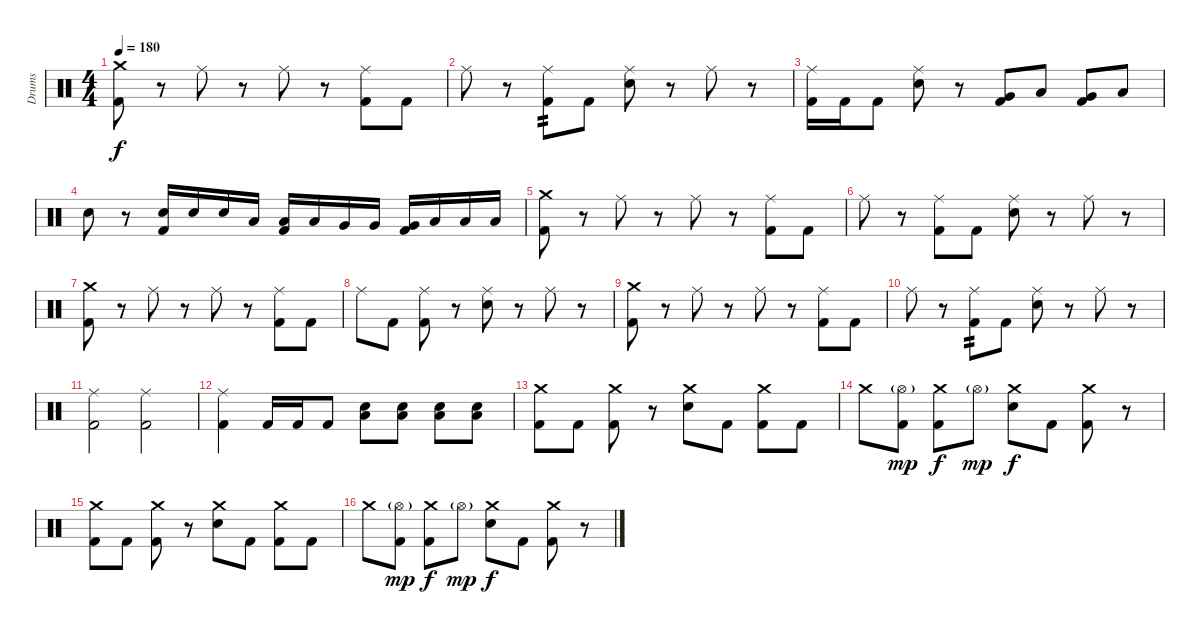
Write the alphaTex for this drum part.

\track ("Drums" "Drums") {instrument percussion}
\staff {score}
\articulation defaults
\ts (4 4)
\tempo 180
\clef neutral
\ks c
("Crash medium (hit)" "Kick (hit) 2").8{dy f} r.8 "Ride (middle)".8 r.8 "Ride (middle)".8 r.8 ("Ride (middle)" "Kick (hit) 2").8 "Kick (hit) 2".8 |
"Ride (middle)".8 r.8 ("Ride (middle)" "Kick (hit) 2").8{tp 2} "Kick (hit) 2".8 ("Ride (middle)" "Electric Snare (hit)").8 r.8 "Ride (middle)".8 r.8 |
("Ride (middle)" "Kick (hit) 2").16 "Kick (hit) 2".16 "Kick (hit) 2".8 ("Ride (middle)" "Electric Snare (hit)").8 r.8 ("Very Low Tom (hit)" "Kick (hit) 2").8 "Low Floor Tom (hit)".8 ("Very Low Tom (hit)" "Kick (hit) 2").8 "Low Floor Tom (hit)".8 |
"Electric Snare (hit)".8 r.8 ("Electric Snare (hit)" "Kick (hit) 2").16 "Electric Snare (hit)".16 "Electric Snare (hit)".16 "Low Tom (hit)".16 ("Low Tom (hit)" "Kick (hit) 2").16 "Low Tom (hit)".16 "Very Low Tom (hit)".16 "Very Low Tom (hit)".16 ("Very Low Tom (hit)" "Kick (hit) 2").16 "Low Floor Tom (hit)".16 "Low Floor Tom (hit)".16 "Low Floor Tom (hit)".16 |
("Crash medium (hit)" "Kick (hit) 2").8 r.8 "Ride (middle)".8 r.8 "Ride (middle)".8 r.8 ("Ride (middle)" "Kick (hit) 2").8 "Kick (hit) 2".8 |
"Ride (middle)".8 r.8 ("Ride (middle)" "Kick (hit) 2").8 "Kick (hit) 2".8 ("Ride (middle)" "Electric Snare (hit)").8 r.8 "Ride (middle)".8 r.8 |
("Crash medium (hit)" "Kick (hit) 2").8 r.8 "Ride (middle)".8 r.8 "Ride (middle)".8 r.8 ("Ride (middle)" "Kick (hit) 2").8 "Kick (hit) 2".8 |
"Ride (middle)".8 "Kick (hit) 2".8 ("Ride (middle)" "Kick (hit) 2").8 r.8 ("Ride (middle)" "Electric Snare (hit)").8 r.8 "Ride (middle)".8 r.8 |
("Crash medium (hit)" "Kick (hit) 2").8 r.8 "Ride (middle)".8 r.8 "Ride (middle)".8 r.8 ("Ride (middle)" "Kick (hit) 2").8 "Kick (hit) 2".8 |
"Ride (middle)".8 r.8 ("Ride (middle)" "Kick (hit) 2").8{tp 2} "Kick (hit) 2".8 ("Ride (middle)" "Electric Snare (hit)").8 r.8 "Ride (middle)".8 r.8 |
("Ride (middle)" "Kick (hit) 2").2 ("Ride (middle)" "Kick (hit) 2").2 |
("Ride (middle)" "Kick (hit) 2").4 "Kick (hit) 2".16 "Kick (hit) 2".16 "Kick (hit) 2".8 ("Low Floor Tom (hit)" "Electric Snare (hit)").8 ("Low Floor Tom (hit)" "Electric Snare (hit)").8 ("Low Floor Tom (hit)" "Electric Snare (hit)").8 ("Low Floor Tom (hit)" "Electric Snare (hit)").8 |
("Crash medium (hit)" "Kick (hit) 2").8 "Kick (hit) 2".8 ("Crash medium (hit)" "Kick (hit) 2").8 r.8 ("Crash medium (hit)" "Electric Snare (hit)").8 "Kick (hit) 2".8 ("Crash medium (hit)" "Kick (hit) 2").8 "Kick (hit) 2".8 |
"Crash medium (hit)".8 ("Hi-Hat (open)"{g} "Kick (hit) 2").8{dy mp} ("Crash medium (hit)" "Kick (hit) 2").8{dy f} "Hi-Hat (open)"{g}.8{dy mp} ("Crash medium (hit)" "Electric Snare (hit)").8{dy f} "Kick (hit) 2".8 ("Crash medium (hit)" "Kick (hit) 2").8 r.8 |
("Crash medium (hit)" "Kick (hit) 2").8 "Kick (hit) 2".8 ("Crash medium (hit)" "Kick (hit) 2").8 r.8 ("Crash medium (hit)" "Electric Snare (hit)").8 "Kick (hit) 2".8 ("Crash medium (hit)" "Kick (hit) 2").8 "Kick (hit) 2".8 |
"Crash medium (hit)".8 ("Hi-Hat (open)"{g} "Kick (hit) 2").8{dy mp} ("Crash medium (hit)" "Kick (hit) 2").8{dy f} "Hi-Hat (open)"{g}.8{dy mp} ("Crash medium (hit)" "Electric Snare (hit)").8{dy f} "Kick (hit) 2".8 ("Crash medium (hit)" "Kick (hit) 2").8 r.8
